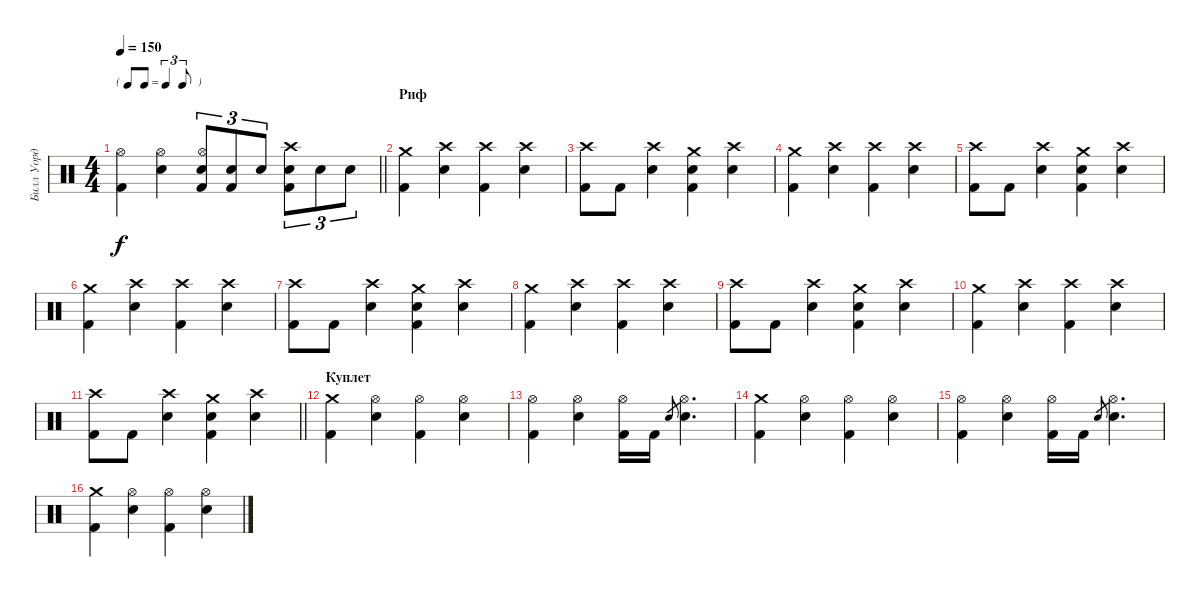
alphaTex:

\track ("Билл Уорд" "Билл Уорд") {instrument percussion}
\staff {score}
\articulation defaults
\ts (4 4)
\tf triplet8th
\tempo 150
\clef neutral
\barLineRight lightlight
\ks c
("Kick (hit) 2" "Hi-Hat (open)").4{dy f} ("Snare (hit) 2" "Hi-Hat (open)").4 ("Kick (hit) 2" "Hi-Hat (open)" "Snare (hit) 2").8{tu (3 2)} ("Kick (hit) 2" "Snare (hit) 2").8{tu (3 2)} "Snare (hit) 2".8{tu (3 2)} ("Snare (hit) 2" "Kick (hit) 2" "Crash high (hit)").8{tu (3 2)} "Snare (hit) 2".8{tu (3 2)} "Snare (hit) 2".8{tu (3 2)} |
\section ("" "Риф")
("Kick (hit) 2" "Crash medium (hit)").4 ("Snare (hit) 2" "Crash high (hit)").4 ("Kick (hit) 2" "Crash high (hit)").4 ("Snare (hit) 2" "Crash high (hit)").4 |
("Kick (hit) 2" "Crash high (hit)").8 "Kick (hit) 2".8 ("Snare (hit) 2" "Crash high (hit)").4 ("Snare (hit) 2" "Kick (hit) 2" "Crash medium (hit)").4 ("Snare (hit) 2" "Crash high (hit)").4 |
("Kick (hit) 2" "Crash medium (hit)").4 ("Snare (hit) 2" "Crash high (hit)").4 ("Kick (hit) 2" "Crash high (hit)").4 ("Snare (hit) 2" "Crash high (hit)").4 |
("Kick (hit) 2" "Crash high (hit)").8 "Kick (hit) 2".8 ("Snare (hit) 2" "Crash high (hit)").4 ("Snare (hit) 2" "Kick (hit) 2" "Crash medium (hit)").4 ("Snare (hit) 2" "Crash high (hit)").4 |
("Kick (hit) 2" "Crash medium (hit)").4 ("Snare (hit) 2" "Crash high (hit)").4 ("Kick (hit) 2" "Crash high (hit)").4 ("Snare (hit) 2" "Crash high (hit)").4 |
("Kick (hit) 2" "Crash high (hit)").8 "Kick (hit) 2".8 ("Snare (hit) 2" "Crash high (hit)").4 ("Snare (hit) 2" "Kick (hit) 2" "Crash medium (hit)").4 ("Snare (hit) 2" "Crash high (hit)").4 |
("Kick (hit) 2" "Crash medium (hit)").4 ("Snare (hit) 2" "Crash high (hit)").4 ("Kick (hit) 2" "Crash high (hit)").4 ("Snare (hit) 2" "Crash high (hit)").4 |
("Kick (hit) 2" "Crash high (hit)").8 "Kick (hit) 2".8 ("Snare (hit) 2" "Crash high (hit)").4 ("Snare (hit) 2" "Kick (hit) 2" "Crash medium (hit)").4 ("Snare (hit) 2" "Crash high (hit)").4 |
("Kick (hit) 2" "Crash medium (hit)").4 ("Snare (hit) 2" "Crash high (hit)").4 ("Kick (hit) 2" "Crash high (hit)").4 ("Snare (hit) 2" "Crash high (hit)").4 |
\barLineRight lightlight
("Kick (hit) 2" "Crash high (hit)").8 "Kick (hit) 2".8 ("Snare (hit) 2" "Crash high (hit)").4 ("Snare (hit) 2" "Kick (hit) 2" "Crash medium (hit)").4 ("Snare (hit) 2" "Crash high (hit)").4 |
\section ("" "Куплет")
("Crash medium (hit)" "Kick (hit) 2").4 ("Hi-Hat (open)" "Snare (hit) 2").4 ("Hi-Hat (open)" "Kick (hit) 2").4 ("Hi-Hat (open)" "Snare (hit) 2").4 |
("Kick (hit) 2" "Hi-Hat (open)").4 ("Snare (hit) 2" "Hi-Hat (open)").4 ("Kick (hit) 2" "Hi-Hat (open)").16 "Kick (hit) 2".16 "Snare (hit) 2".8{gr} ("Snare (hit) 2" "Hi-Hat (open)").4{d} |
("Crash medium (hit)" "Kick (hit) 2").4 ("Hi-Hat (open)" "Snare (hit) 2").4 ("Hi-Hat (open)" "Kick (hit) 2").4 ("Hi-Hat (open)" "Snare (hit) 2").4 |
("Kick (hit) 2" "Hi-Hat (open)").4 ("Snare (hit) 2" "Hi-Hat (open)").4 ("Kick (hit) 2" "Hi-Hat (open)").16 "Kick (hit) 2".16 "Snare (hit) 2".8{gr} ("Snare (hit) 2" "Hi-Hat (open)").4{d} |
("Crash medium (hit)" "Kick (hit) 2").4 ("Hi-Hat (open)" "Snare (hit) 2").4 ("Hi-Hat (open)" "Kick (hit) 2").4 ("Hi-Hat (open)" "Snare (hit) 2").4
